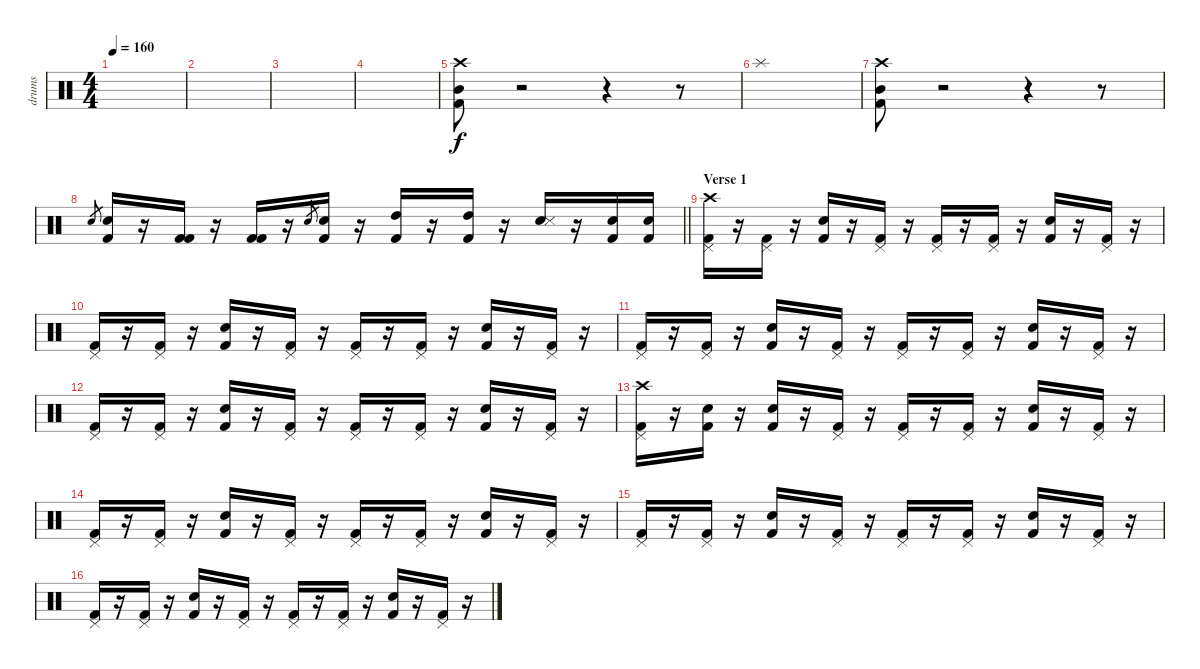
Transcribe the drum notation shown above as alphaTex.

\track ("drums" "drums") {instrument percussion}
\staff {score}
\articulation defaults
\ts (4 4)
\tempo 160
\clef neutral
\ks c
|
|
|
|
("Crash high (hit)" "Mid Tom (hit)" "Kick (hit) 2").8 r.2 r.4 r.8 |
"Splash (hit)".1 |
("Crash high (hit)" "Mid Tom (hit)" "Kick (hit) 2").8 r.2 r.4 r.8 |
\barLineRight lightlight "Electric Snare (hit)"{sl}.8{gr}
("Electric Snare (hit)" "Kick (hit) 2").16 r.16 ("Kick (hit) 2" "Kick (hit) 2").16 r.16 ("Kick (hit) 2" "Kick (hit) 2").16 r.16 "Electric Snare (hit)".8{gr} ("Electric Snare (hit)" "Kick (hit) 2").16 r.16 ("High Tom (hit)" "Kick (hit) 2").16 r.16 ("High Tom (hit)" "Kick (hit) 2").16 r.16 ("Snare (hit) 2" "Snare (side stick) 3").16 r.16 ("Snare (hit) 2" "Kick (hit) 2").16 ("Snare (hit) 2" "Kick (hit) 2").16 |
\section ("" "Verse 1")
("Crash high (hit)" "Pedal Hi-Hat (hit)" "Kick (hit) 2").16 r.16 ("Pedal Hi-Hat (hit)" "Kick (hit) 2").16 r.16 ("Snare (hit) 2" "Kick (hit) 2").16 r.16 ("Pedal Hi-Hat (hit)" "Kick (hit) 2").16 r.16 ("Pedal Hi-Hat (hit)" "Kick (hit) 2").16 r.16 ("Pedal Hi-Hat (hit)" "Kick (hit) 2").16 r.16 ("Snare (hit) 2" "Kick (hit) 2").16 r.16 ("Pedal Hi-Hat (hit)" "Kick (hit) 2").16 r.16 |
("Pedal Hi-Hat (hit)" "Kick (hit) 2").16 r.16 ("Pedal Hi-Hat (hit)" "Kick (hit) 2").16 r.16 ("Snare (hit) 2" "Kick (hit) 2").16 r.16 ("Pedal Hi-Hat (hit)" "Kick (hit) 2").16 r.16 ("Pedal Hi-Hat (hit)" "Kick (hit) 2").16 r.16 ("Pedal Hi-Hat (hit)" "Kick (hit) 2").16 r.16 ("Snare (hit) 2" "Kick (hit) 2").16 r.16 ("Pedal Hi-Hat (hit)" "Kick (hit) 2").16 r.16 |
("Pedal Hi-Hat (hit)" "Kick (hit) 2").16 r.16 ("Pedal Hi-Hat (hit)" "Kick (hit) 2").16 r.16 ("Snare (hit) 2" "Kick (hit) 2").16 r.16 ("Pedal Hi-Hat (hit)" "Kick (hit) 2").16 r.16 ("Pedal Hi-Hat (hit)" "Kick (hit) 2").16 r.16 ("Pedal Hi-Hat (hit)" "Kick (hit) 2").16 r.16 ("Snare (hit) 2" "Kick (hit) 2").16 r.16 ("Pedal Hi-Hat (hit)" "Kick (hit) 2").16 r.16 |
("Pedal Hi-Hat (hit)" "Kick (hit) 2").16 r.16 ("Pedal Hi-Hat (hit)" "Kick (hit) 2").16 r.16 ("Snare (hit) 2" "Kick (hit) 2").16 r.16 ("Pedal Hi-Hat (hit)" "Kick (hit) 2").16 r.16 ("Pedal Hi-Hat (hit)" "Kick (hit) 2").16 r.16 ("Pedal Hi-Hat (hit)" "Kick (hit) 2").16 r.16 ("Snare (hit) 2" "Kick (hit) 2").16 r.16 ("Pedal Hi-Hat (hit)" "Kick (hit) 2").16 r.16 |
("Crash high (hit)" "Pedal Hi-Hat (hit)" "Kick (hit) 2").16 r.16 ("Snare (hit) 2" "Kick (hit) 2").16 r.16 ("Snare (hit) 2" "Kick (hit) 2").16 r.16 ("Pedal Hi-Hat (hit)" "Kick (hit) 2").16 r.16 ("Pedal Hi-Hat (hit)" "Kick (hit) 2").16 r.16 ("Pedal Hi-Hat (hit)" "Kick (hit) 2").16 r.16 ("Snare (hit) 2" "Kick (hit) 2").16 r.16 ("Pedal Hi-Hat (hit)" "Kick (hit) 2").16 r.16 |
("Pedal Hi-Hat (hit)" "Kick (hit) 2").16 r.16 ("Pedal Hi-Hat (hit)" "Kick (hit) 2").16 r.16 ("Snare (hit) 2" "Kick (hit) 2").16 r.16 ("Pedal Hi-Hat (hit)" "Kick (hit) 2").16 r.16 ("Pedal Hi-Hat (hit)" "Kick (hit) 2").16 r.16 ("Pedal Hi-Hat (hit)" "Kick (hit) 2").16 r.16 ("Snare (hit) 2" "Kick (hit) 2").16 r.16 ("Pedal Hi-Hat (hit)" "Kick (hit) 2").16 r.16 |
("Pedal Hi-Hat (hit)" "Kick (hit) 2").16 r.16 ("Pedal Hi-Hat (hit)" "Kick (hit) 2").16 r.16 ("Snare (hit) 2" "Kick (hit) 2").16 r.16 ("Pedal Hi-Hat (hit)" "Kick (hit) 2").16 r.16 ("Pedal Hi-Hat (hit)" "Kick (hit) 2").16 r.16 ("Pedal Hi-Hat (hit)" "Kick (hit) 2").16 r.16 ("Snare (hit) 2" "Kick (hit) 2").16 r.16 ("Pedal Hi-Hat (hit)" "Kick (hit) 2").16 r.16 |
("Pedal Hi-Hat (hit)" "Kick (hit) 2").16 r.16 ("Pedal Hi-Hat (hit)" "Kick (hit) 2").16 r.16 ("Snare (hit) 2" "Kick (hit) 2").16 r.16 ("Pedal Hi-Hat (hit)" "Kick (hit) 2").16 r.16 ("Pedal Hi-Hat (hit)" "Kick (hit) 2").16 r.16 ("Pedal Hi-Hat (hit)" "Kick (hit) 2").16 r.16 ("Snare (hit) 2" "Kick (hit) 2").16 r.16 ("Pedal Hi-Hat (hit)" "Kick (hit) 2").16 r.16
